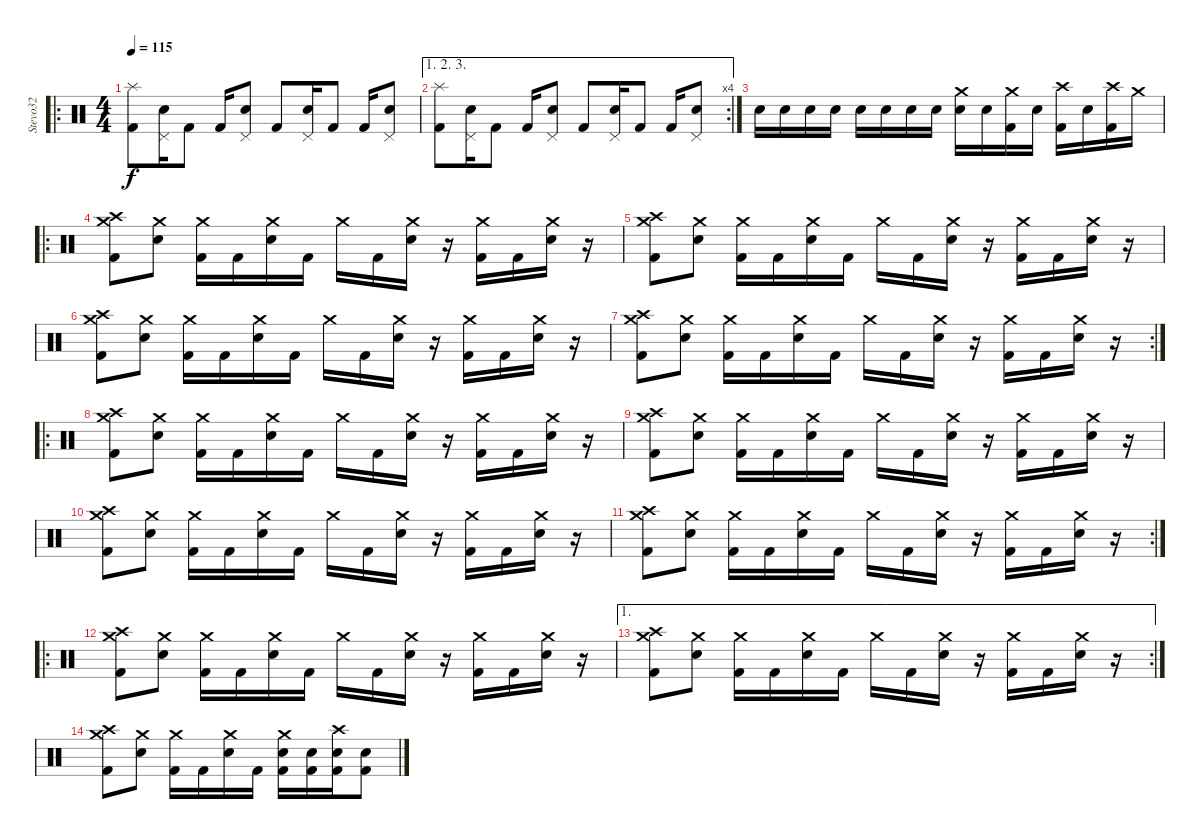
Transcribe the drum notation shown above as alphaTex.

\track ("Stevo32" "Stevo32") {instrument percussion}
\staff {score}
\articulation defaults
\ro
\ts (4 4)
\tempo 115
\clef neutral
\ks c
("Splash (hit)" "Kick (hit) 2").8{dy f} ("Pedal Hi-Hat (hit)" "Electric Snare (hit)").16 "Kick (hit) 2".8 "Kick (hit) 2".16 ("Pedal Hi-Hat (hit)" "Electric Snare (hit)").8 "Kick (hit) 2".8 ("Pedal Hi-Hat (hit)" "Electric Snare (hit)").16 "Kick (hit) 2".8 "Kick (hit) 2".16 ("Pedal Hi-Hat (hit)" "Electric Snare (hit)").8 |
\ae (1 2 3)
\rc 4
("Splash (hit)" "Kick (hit) 2").8 ("Pedal Hi-Hat (hit)" "Electric Snare (hit)").16 "Kick (hit) 2".8 "Kick (hit) 2".16 ("Pedal Hi-Hat (hit)" "Electric Snare (hit)").8 "Kick (hit) 2".8 ("Pedal Hi-Hat (hit)" "Electric Snare (hit)").16 "Kick (hit) 2".8 "Kick (hit) 2".16 ("Pedal Hi-Hat (hit)" "Electric Snare (hit)").8 |
"Electric Snare (hit)".16 "Electric Snare (hit)".16 "Electric Snare (hit)".16 "Electric Snare (hit)".16 "Electric Snare (hit)".16 "Electric Snare (hit)".16 "Electric Snare (hit)".16 "Electric Snare (hit)".16 ("Crash medium (hit)" "Electric Snare (hit)").16 "Electric Snare (hit)".16 ("Crash medium (hit)" "Kick (hit) 2").16 "Electric Snare (hit)".16 ("Crash high (hit)" "Kick (hit) 2").16 "Electric Snare (hit)".16 ("Crash high (hit)" "Kick (hit) 2").16 "Crash medium (hit)".16 |
\ro
("Crash medium (hit)" "Crash high (hit)" "Kick (hit) 2").8 ("Crash medium (hit)" "Electric Snare (hit)").8 ("Crash medium (hit)" "Kick (hit) 2").16 "Kick (hit) 2".16 ("Crash medium (hit)" "Electric Snare (hit)").16 "Kick (hit) 2".16 "Crash medium (hit)".16 "Kick (hit) 2".16 ("Crash medium (hit)" "Electric Snare (hit)").16 r.16 ("Crash medium (hit)" "Kick (hit) 2").16 "Kick (hit) 2".16 ("Crash medium (hit)" "Electric Snare (hit)").16 r.16 |
("Crash medium (hit)" "Crash high (hit)" "Kick (hit) 2").8 ("Crash medium (hit)" "Electric Snare (hit)").8 ("Crash medium (hit)" "Kick (hit) 2").16 "Kick (hit) 2".16 ("Crash medium (hit)" "Electric Snare (hit)").16 "Kick (hit) 2".16 "Crash medium (hit)".16 "Kick (hit) 2".16 ("Crash medium (hit)" "Electric Snare (hit)").16 r.16 ("Crash medium (hit)" "Kick (hit) 2").16 "Kick (hit) 2".16 ("Crash medium (hit)" "Electric Snare (hit)").16 r.16 |
("Crash medium (hit)" "Crash high (hit)" "Kick (hit) 2").8 ("Crash medium (hit)" "Electric Snare (hit)").8 ("Crash medium (hit)" "Kick (hit) 2").16 "Kick (hit) 2".16 ("Crash medium (hit)" "Electric Snare (hit)").16 "Kick (hit) 2".16 "Crash medium (hit)".16 "Kick (hit) 2".16 ("Crash medium (hit)" "Electric Snare (hit)").16 r.16 ("Crash medium (hit)" "Kick (hit) 2").16 "Kick (hit) 2".16 ("Crash medium (hit)" "Electric Snare (hit)").16 r.16 |
\rc 2
("Crash medium (hit)" "Crash high (hit)" "Kick (hit) 2").8 ("Crash medium (hit)" "Electric Snare (hit)").8 ("Crash medium (hit)" "Kick (hit) 2").16 "Kick (hit) 2".16 ("Crash medium (hit)" "Electric Snare (hit)").16 "Kick (hit) 2".16 "Crash medium (hit)".16 "Kick (hit) 2".16 ("Crash medium (hit)" "Electric Snare (hit)").16 r.16 ("Crash medium (hit)" "Kick (hit) 2").16 "Kick (hit) 2".16 ("Crash medium (hit)" "Electric Snare (hit)").16 r.16 |
\ro
("Crash medium (hit)" "Crash high (hit)" "Kick (hit) 2").8 ("Crash medium (hit)" "Electric Snare (hit)").8 ("Crash medium (hit)" "Kick (hit) 2").16 "Kick (hit) 2".16 ("Crash medium (hit)" "Electric Snare (hit)").16 "Kick (hit) 2".16 "Crash medium (hit)".16 "Kick (hit) 2".16 ("Crash medium (hit)" "Electric Snare (hit)").16 r.16 ("Crash medium (hit)" "Kick (hit) 2").16 "Kick (hit) 2".16 ("Crash medium (hit)" "Electric Snare (hit)").16 r.16 |
("Crash medium (hit)" "Crash high (hit)" "Kick (hit) 2").8 ("Crash medium (hit)" "Electric Snare (hit)").8 ("Crash medium (hit)" "Kick (hit) 2").16 "Kick (hit) 2".16 ("Crash medium (hit)" "Electric Snare (hit)").16 "Kick (hit) 2".16 "Crash medium (hit)".16 "Kick (hit) 2".16 ("Crash medium (hit)" "Electric Snare (hit)").16 r.16 ("Crash medium (hit)" "Kick (hit) 2").16 "Kick (hit) 2".16 ("Crash medium (hit)" "Electric Snare (hit)").16 r.16 |
("Crash medium (hit)" "Crash high (hit)" "Kick (hit) 2").8 ("Crash medium (hit)" "Electric Snare (hit)").8 ("Crash medium (hit)" "Kick (hit) 2").16 "Kick (hit) 2".16 ("Crash medium (hit)" "Electric Snare (hit)").16 "Kick (hit) 2".16 "Crash medium (hit)".16 "Kick (hit) 2".16 ("Crash medium (hit)" "Electric Snare (hit)").16 r.16 ("Crash medium (hit)" "Kick (hit) 2").16 "Kick (hit) 2".16 ("Crash medium (hit)" "Electric Snare (hit)").16 r.16 |
\rc 2
("Crash medium (hit)" "Crash high (hit)" "Kick (hit) 2").8 ("Crash medium (hit)" "Electric Snare (hit)").8 ("Crash medium (hit)" "Kick (hit) 2").16 "Kick (hit) 2".16 ("Crash medium (hit)" "Electric Snare (hit)").16 "Kick (hit) 2".16 "Crash medium (hit)".16 "Kick (hit) 2".16 ("Crash medium (hit)" "Electric Snare (hit)").16 r.16 ("Crash medium (hit)" "Kick (hit) 2").16 "Kick (hit) 2".16 ("Crash medium (hit)" "Electric Snare (hit)").16 r.16 |
\ro
("Crash medium (hit)" "Crash high (hit)" "Kick (hit) 2").8 ("Crash medium (hit)" "Electric Snare (hit)").8 ("Crash medium (hit)" "Kick (hit) 2").16 "Kick (hit) 2".16 ("Crash medium (hit)" "Electric Snare (hit)").16 "Kick (hit) 2".16 "Crash medium (hit)".16 "Kick (hit) 2".16 ("Crash medium (hit)" "Electric Snare (hit)").16 r.16 ("Crash medium (hit)" "Kick (hit) 2").16 "Kick (hit) 2".16 ("Crash medium (hit)" "Electric Snare (hit)").16 r.16 |
\ae 1
\rc 2
("Crash medium (hit)" "Crash high (hit)" "Kick (hit) 2").8 ("Crash medium (hit)" "Electric Snare (hit)").8 ("Crash medium (hit)" "Kick (hit) 2").16 "Kick (hit) 2".16 ("Crash medium (hit)" "Electric Snare (hit)").16 "Kick (hit) 2".16 "Crash medium (hit)".16 "Kick (hit) 2".16 ("Crash medium (hit)" "Electric Snare (hit)").16 r.16 ("Crash medium (hit)" "Kick (hit) 2").16 "Kick (hit) 2".16 ("Crash medium (hit)" "Electric Snare (hit)").16 r.16 |
("Crash medium (hit)" "Crash high (hit)" "Kick (hit) 2").8 ("Crash medium (hit)" "Electric Snare (hit)").8 ("Crash medium (hit)" "Kick (hit) 2").16 "Kick (hit) 2".16 ("Crash medium (hit)" "Electric Snare (hit)").16 "Kick (hit) 2".16 ("Crash medium (hit)" "Kick (hit) 2" "Electric Snare (hit)").16 ("Kick (hit) 2" "Electric Snare (hit)").16 ("Crash high (hit)" "Kick (hit) 2" "Electric Snare (hit)").16 ("Kick (hit) 2" "Electric Snare (hit)").8
